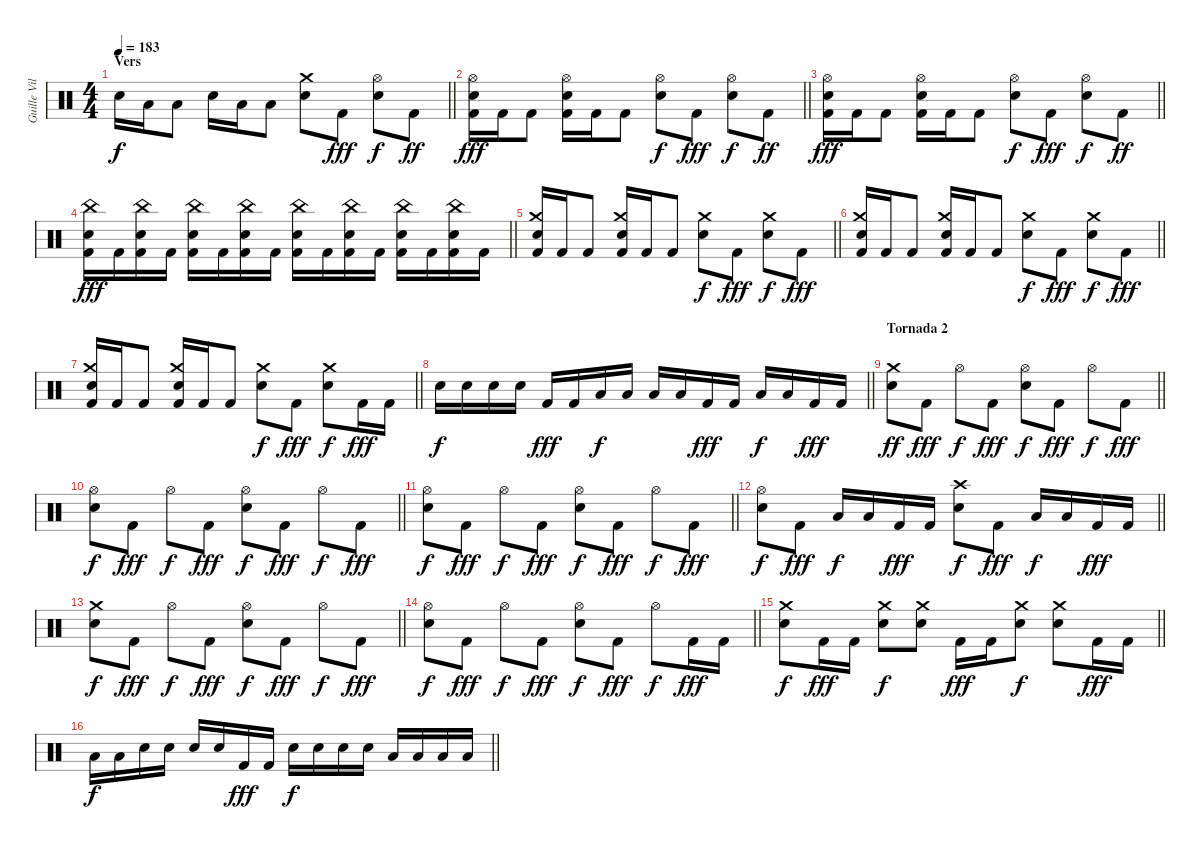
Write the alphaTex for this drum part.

\track ("Guille Vila" "Guille Vil") {instrument percussion}
\staff {score}
\articulation defaults
\ts (4 4)
\section ("" "Vers")
\tempo 183
\clef neutral
\barLineRight lightlight
\ks c "Snare (hit) 2".16{dy f} "Low Tom (hit)".16 "Low Tom (hit)".8 "Snare (hit) 2".16 "Low Tom (hit)".16 "Low Tom (hit)".8
("Crash medium (hit)" "Snare (hit) 2").8 "Kick (hit) 2".8{dy fff} ("Hi-Hat (open)" "Snare (hit) 2").8{dy f} "Kick (hit) 2".8{dy ff} |
\barLineRight lightlight
("Hi-Hat (open)" "Snare (hit) 2" "Kick (hit) 2").16{dy fff} "Kick (hit) 2".16 "Kick (hit) 2".8 ("Hi-Hat (open)" "Snare (hit) 2" "Kick (hit) 2").16 "Kick (hit) 2".16 "Kick (hit) 2".8 ("Hi-Hat (open)" "Snare (hit) 2").8{dy f} "Kick (hit) 2".8{dy fff} ("Hi-Hat (open)" "Snare (hit) 2").8{dy f} "Kick (hit) 2".8{dy ff} |
\barLineRight lightlight
("Hi-Hat (open)" "Snare (hit) 2" "Kick (hit) 2").16{dy fff} "Kick (hit) 2".16 "Kick (hit) 2".8 ("Hi-Hat (open)" "Snare (hit) 2" "Kick (hit) 2").16 "Kick (hit) 2".16 "Kick (hit) 2".8 ("Hi-Hat (open)" "Snare (hit) 2").8{dy f} "Kick (hit) 2".8{dy fff} ("Hi-Hat (open)" "Snare (hit) 2").8{dy f} "Kick (hit) 2".8{dy ff} |
\barLineRight lightlight
("China (hit)" "Snare (hit) 2" "Kick (hit) 2").16{dy fff} "Kick (hit) 2".16 ("China (hit)" "Snare (hit) 2" "Kick (hit) 2").16 "Kick (hit) 2".16 ("China (hit)" "Snare (hit) 2" "Kick (hit) 2").16 "Kick (hit) 2".16 ("China (hit)" "Snare (hit) 2" "Kick (hit) 2").16 "Kick (hit) 2".16 ("China (hit)" "Snare (hit) 2" "Kick (hit) 2").16 "Kick (hit) 2".16 ("China (hit)" "Snare (hit) 2" "Kick (hit) 2").16 "Kick (hit) 2".16 ("China (hit)" "Snare (hit) 2" "Kick (hit) 2").16 "Kick (hit) 2".16 ("China (hit)" "Snare (hit) 2" "Kick (hit) 2").16 "Kick (hit) 2".16 |
\barLineRight lightlight
("Crash medium (hit)" "Snare (hit) 2" "Kick (hit) 2").16 "Kick (hit) 2".16 "Kick (hit) 2".8 ("Crash medium (hit)" "Snare (hit) 2" "Kick (hit) 2").16 "Kick (hit) 2".16 "Kick (hit) 2".8 ("Crash medium (hit)" "Snare (hit) 2").8{dy f} "Kick (hit) 2".8{dy fff} ("Crash medium (hit)" "Snare (hit) 2").8{dy f} "Kick (hit) 2".8{dy fff} |
\barLineRight lightlight
("Crash medium (hit)" "Snare (hit) 2" "Kick (hit) 2").16 "Kick (hit) 2".16 "Kick (hit) 2".8 ("Crash medium (hit)" "Snare (hit) 2" "Kick (hit) 2").16 "Kick (hit) 2".16 "Kick (hit) 2".8 ("Crash medium (hit)" "Snare (hit) 2").8{dy f} "Kick (hit) 2".8{dy fff} ("Crash medium (hit)" "Snare (hit) 2").8{dy f} "Kick (hit) 2".8{dy fff} |
\barLineRight lightlight
("Crash medium (hit)" "Snare (hit) 2" "Kick (hit) 2").16 "Kick (hit) 2".16 "Kick (hit) 2".8 ("Crash medium (hit)" "Snare (hit) 2" "Kick (hit) 2").16 "Kick (hit) 2".16 "Kick (hit) 2".8 ("Crash medium (hit)" "Snare (hit) 2").8{dy f} "Kick (hit) 2".8{dy fff} ("Crash medium (hit)" "Snare (hit) 2").8{dy f} "Kick (hit) 2".16{dy fff} "Kick (hit) 2".16 |
\barLineRight lightlight "Snare (hit) 2".16{dy f} "Snare (hit) 2".16 "Snare (hit) 2".16 "Snare (hit) 2".16 "Kick (hit) 2".16{dy fff} "Kick (hit) 2".16 "Low Tom (hit)".16{dy f} "Low Tom (hit)".16 "Low Tom (hit)".16 "Low Tom (hit)".16 "Kick (hit) 2".16{dy fff} "Kick (hit) 2".16 "Low Floor Tom (hit)".16{dy f} "Low Floor Tom (hit)".16 "Kick (hit) 2".16{dy fff} "Kick (hit) 2".16
|
\section ("" "Tornada 2")
\barLineRight lightlight
("Crash medium (hit)" "Snare (hit) 2").8{dy ff} "Kick (hit) 2".8{dy fff} "Hi-Hat (open)".8{dy f} "Kick (hit) 2".8{dy fff} ("Hi-Hat (open)" "Snare (hit) 2").8{dy f} "Kick (hit) 2".8{dy fff} "Hi-Hat (open)".8{dy f} "Kick (hit) 2".8{dy fff} |
\barLineRight lightlight
("Hi-Hat (open)" "Snare (hit) 2").8{dy f} "Kick (hit) 2".8{dy fff} "Hi-Hat (open)".8{dy f} "Kick (hit) 2".8{dy fff} ("Hi-Hat (open)" "Snare (hit) 2").8{dy f} "Kick (hit) 2".8{dy fff} "Hi-Hat (open)".8{dy f} "Kick (hit) 2".8{dy fff} |
\barLineRight lightlight
("Hi-Hat (open)" "Snare (hit) 2").8{dy f} "Kick (hit) 2".8{dy fff} "Hi-Hat (open)".8{dy f} "Kick (hit) 2".8{dy fff} ("Hi-Hat (open)" "Snare (hit) 2").8{dy f} "Kick (hit) 2".8{dy fff} "Hi-Hat (open)".8{dy f} "Kick (hit) 2".8{dy fff} |
\barLineRight lightlight
("Hi-Hat (open)" "Snare (hit) 2").8{dy f} "Kick (hit) 2".8{dy fff} "Low Tom (hit)".16{dy f} "Low Tom (hit)".16 "Kick (hit) 2".16{dy fff} "Kick (hit) 2".16 ("Crash high (hit)" "Snare (hit) 2").8{dy f} "Kick (hit) 2".8{dy fff} "Low Floor Tom (hit)".16{dy f} "Low Tom (hit)".16 "Kick (hit) 2".16{dy fff} "Kick (hit) 2".16 |
\barLineRight lightlight
("Crash medium (hit)" "Snare (hit) 2").8{dy f} "Kick (hit) 2".8{dy fff} "Hi-Hat (open)".8{dy f} "Kick (hit) 2".8{dy fff} ("Hi-Hat (open)" "Snare (hit) 2").8{dy f} "Kick (hit) 2".8{dy fff} "Hi-Hat (open)".8{dy f} "Kick (hit) 2".8{dy fff} |
\barLineRight lightlight
("Hi-Hat (open)" "Snare (hit) 2").8{dy f} "Kick (hit) 2".8{dy fff} "Hi-Hat (open)".8{dy f} "Kick (hit) 2".8{dy fff} ("Hi-Hat (open)" "Snare (hit) 2").8{dy f} "Kick (hit) 2".8{dy fff} "Hi-Hat (open)".8{dy f} "Kick (hit) 2".16{dy fff} "Kick (hit) 2".16 |
\barLineRight lightlight
("Crash medium (hit)" "Snare (hit) 2").8{dy f} "Kick (hit) 2".16{dy fff} "Kick (hit) 2".16 ("Crash medium (hit)" "Snare (hit) 2").8{dy f} ("Crash medium (hit)" "Snare (hit) 2").8 "Kick (hit) 2".16{dy fff} "Kick (hit) 2".16 ("Crash medium (hit)" "Snare (hit) 2").8{dy f} ("Crash medium (hit)" "Snare (hit) 2").8 "Kick (hit) 2".16{dy fff} "Kick (hit) 2".16 |
\barLineRight lightlight "Low Tom (hit)".16{dy f} "Low Tom (hit)".16 "Snare (hit) 2".16 "Snare (hit) 2".16 "Snare (hit) 2".16 "Snare (hit) 2".16 "Kick (hit) 2".16{dy fff} "Kick (hit) 2".16 "Snare (hit) 2".16{dy f} "Snare (hit) 2".16 "Snare (hit) 2".16 "Snare (hit) 2".16 "Low Tom (hit)".16 "Low Tom (hit)".16 "Low Tom (hit)".16 "Low Tom (hit)".16
